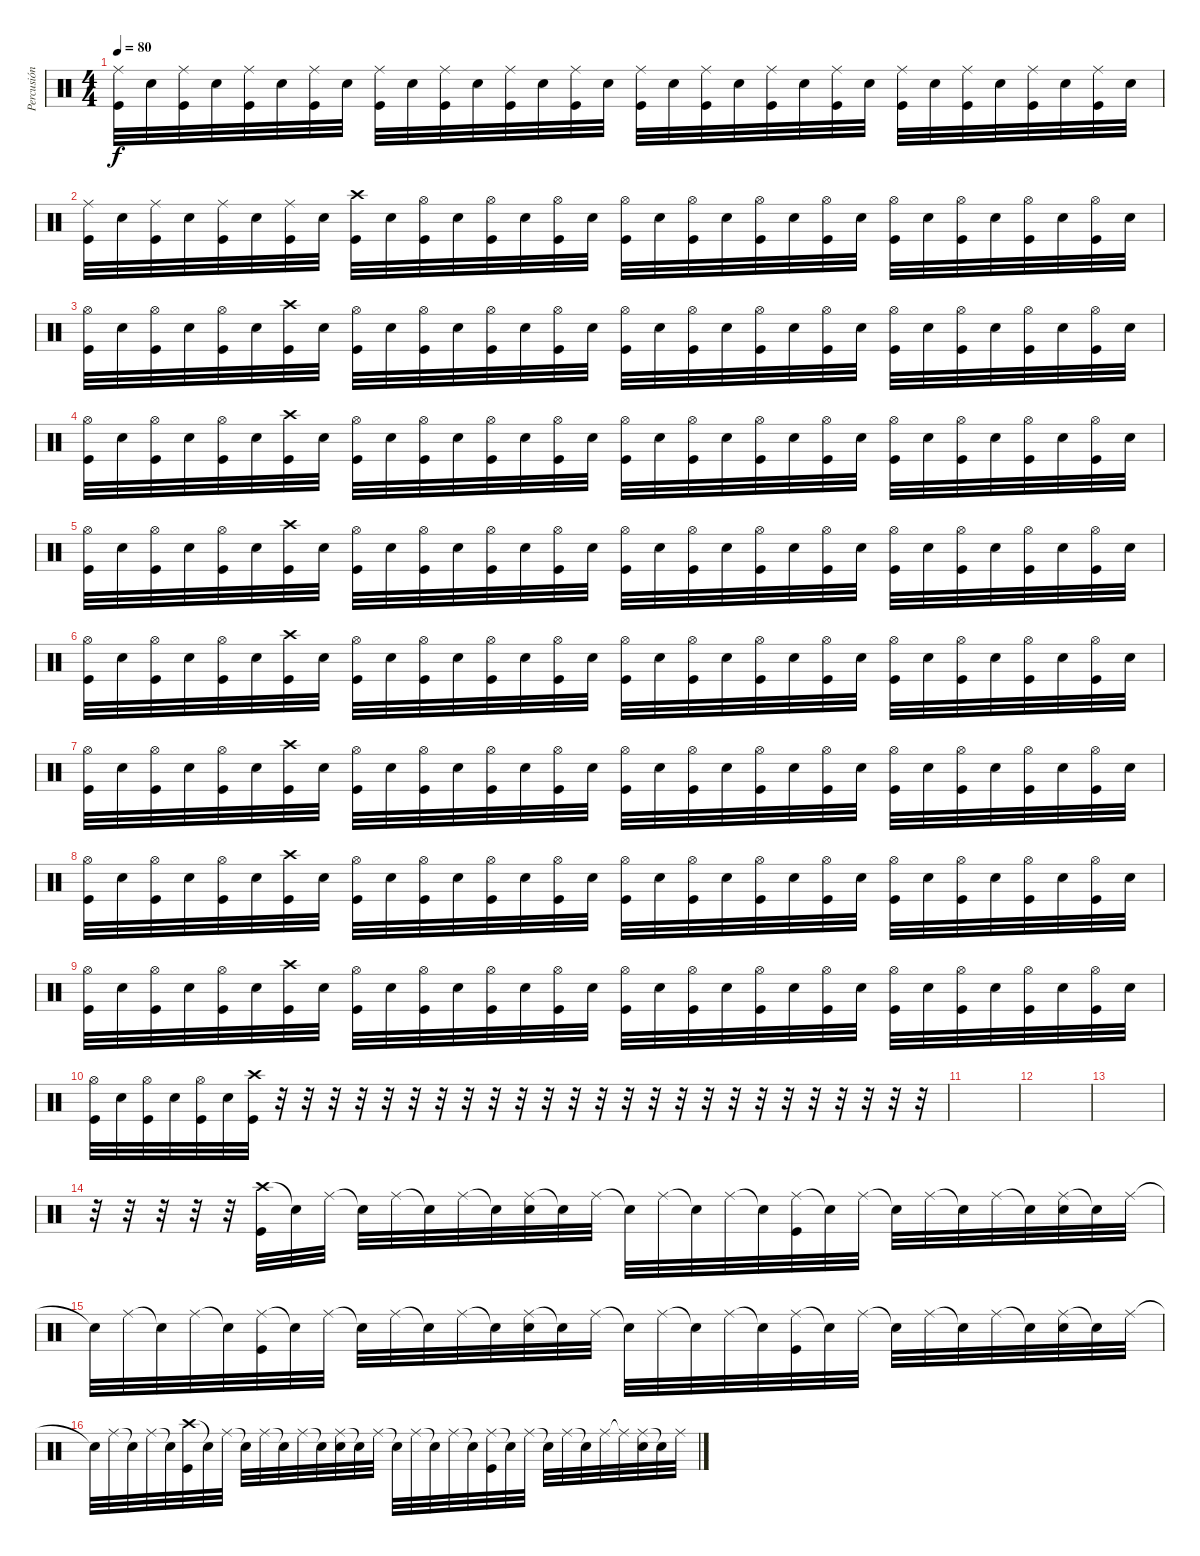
\track ("Percusión" "Percusión") {instrument percussion}
\staff {score}
\articulation defaults
\ts (4 4)
\tempo 80
\clef neutral
\ks c
("Ride (middle)" "Kick (hit)").32{dy f} "Electric Snare (hit)".32 ("Ride (middle)" "Kick (hit)").32 "Electric Snare (hit)".32 ("Ride (middle)" "Kick (hit)").32 "Electric Snare (hit)".32 ("Ride (middle)" "Kick (hit)").32 "Electric Snare (hit)".32 ("Ride (middle)" "Kick (hit)").32 "Electric Snare (hit)".32 ("Ride (middle)" "Kick (hit)").32 "Electric Snare (hit)".32 ("Ride (middle)" "Kick (hit)").32 "Electric Snare (hit)".32 ("Ride (middle)" "Kick (hit)").32 "Electric Snare (hit)".32 ("Ride (middle)" "Kick (hit)").32 "Electric Snare (hit)".32 ("Ride (middle)" "Kick (hit)").32 "Electric Snare (hit)".32 ("Ride (middle)" "Kick (hit)").32 "Electric Snare (hit)".32 ("Ride (middle)" "Kick (hit)").32 "Electric Snare (hit)".32 ("Ride (middle)" "Kick (hit)").32 "Electric Snare (hit)".32 ("Ride (middle)" "Kick (hit)").32 "Electric Snare (hit)".32 ("Ride (middle)" "Kick (hit)").32 "Electric Snare (hit)".32 ("Ride (middle)" "Kick (hit)").32 "Electric Snare (hit)".32 |
("Ride (middle)" "Kick (hit)").32 "Electric Snare (hit)".32 ("Ride (middle)" "Kick (hit)").32 "Electric Snare (hit)".32 ("Ride (middle)" "Kick (hit)").32 "Electric Snare (hit)".32 ("Ride (middle)" "Kick (hit)").32 "Electric Snare (hit)".32 ("Crash high (hit)" "Kick (hit)").32 "Electric Snare (hit)".32 ("Hi-Hat (open)" "Kick (hit)").32 "Electric Snare (hit)".32 ("Hi-Hat (open)" "Kick (hit)").32 "Electric Snare (hit)".32 ("Hi-Hat (open)" "Kick (hit)").32 "Electric Snare (hit)".32 ("Hi-Hat (open)" "Kick (hit)").32 "Electric Snare (hit)".32 ("Hi-Hat (open)" "Kick (hit)").32 "Electric Snare (hit)".32 ("Hi-Hat (open)" "Kick (hit)").32 "Electric Snare (hit)".32 ("Hi-Hat (open)" "Kick (hit)").32 "Electric Snare (hit)".32 ("Hi-Hat (open)" "Kick (hit)").32 "Electric Snare (hit)".32 ("Hi-Hat (open)" "Kick (hit)").32 "Electric Snare (hit)".32 ("Hi-Hat (open)" "Kick (hit)").32 "Electric Snare (hit)".32 ("Hi-Hat (open)" "Kick (hit)").32 "Electric Snare (hit)".32 |
("Hi-Hat (open)" "Kick (hit)").32 "Electric Snare (hit)".32 ("Hi-Hat (open)" "Kick (hit)").32 "Electric Snare (hit)".32 ("Hi-Hat (open)" "Kick (hit)").32 "Electric Snare (hit)".32 ("Crash high (hit)" "Kick (hit)").32 "Electric Snare (hit)".32 ("Hi-Hat (open)" "Kick (hit)").32 "Electric Snare (hit)".32 ("Hi-Hat (open)" "Kick (hit)").32 "Electric Snare (hit)".32 ("Hi-Hat (open)" "Kick (hit)").32 "Electric Snare (hit)".32 ("Hi-Hat (open)" "Kick (hit)").32 "Electric Snare (hit)".32 ("Hi-Hat (open)" "Kick (hit)").32 "Electric Snare (hit)".32 ("Hi-Hat (open)" "Kick (hit)").32 "Electric Snare (hit)".32 ("Hi-Hat (open)" "Kick (hit)").32 "Electric Snare (hit)".32 ("Hi-Hat (open)" "Kick (hit)").32 "Electric Snare (hit)".32 ("Hi-Hat (open)" "Kick (hit)").32 "Electric Snare (hit)".32 ("Hi-Hat (open)" "Kick (hit)").32 "Electric Snare (hit)".32 ("Hi-Hat (open)" "Kick (hit)").32 "Electric Snare (hit)".32 ("Hi-Hat (open)" "Kick (hit)").32 "Electric Snare (hit)".32 |
("Hi-Hat (open)" "Kick (hit)").32 "Electric Snare (hit)".32 ("Hi-Hat (open)" "Kick (hit)").32 "Electric Snare (hit)".32 ("Hi-Hat (open)" "Kick (hit)").32 "Electric Snare (hit)".32 ("Crash high (hit)" "Kick (hit)").32 "Electric Snare (hit)".32 ("Hi-Hat (open)" "Kick (hit)").32 "Electric Snare (hit)".32 ("Hi-Hat (open)" "Kick (hit)").32 "Electric Snare (hit)".32 ("Hi-Hat (open)" "Kick (hit)").32 "Electric Snare (hit)".32 ("Hi-Hat (open)" "Kick (hit)").32 "Electric Snare (hit)".32 ("Hi-Hat (open)" "Kick (hit)").32 "Electric Snare (hit)".32 ("Hi-Hat (open)" "Kick (hit)").32 "Electric Snare (hit)".32 ("Hi-Hat (open)" "Kick (hit)").32 "Electric Snare (hit)".32 ("Hi-Hat (open)" "Kick (hit)").32 "Electric Snare (hit)".32 ("Hi-Hat (open)" "Kick (hit)").32 "Electric Snare (hit)".32 ("Hi-Hat (open)" "Kick (hit)").32 "Electric Snare (hit)".32 ("Hi-Hat (open)" "Kick (hit)").32 "Electric Snare (hit)".32 ("Hi-Hat (open)" "Kick (hit)").32 "Electric Snare (hit)".32 |
("Hi-Hat (open)" "Kick (hit)").32 "Electric Snare (hit)".32 ("Hi-Hat (open)" "Kick (hit)").32 "Electric Snare (hit)".32 ("Hi-Hat (open)" "Kick (hit)").32 "Electric Snare (hit)".32 ("Crash high (hit)" "Kick (hit)").32 "Electric Snare (hit)".32 ("Hi-Hat (open)" "Kick (hit)").32 "Electric Snare (hit)".32 ("Hi-Hat (open)" "Kick (hit)").32 "Electric Snare (hit)".32 ("Hi-Hat (open)" "Kick (hit)").32 "Electric Snare (hit)".32 ("Hi-Hat (open)" "Kick (hit)").32 "Electric Snare (hit)".32 ("Hi-Hat (open)" "Kick (hit)").32 "Electric Snare (hit)".32 ("Hi-Hat (open)" "Kick (hit)").32 "Electric Snare (hit)".32 ("Hi-Hat (open)" "Kick (hit)").32 "Electric Snare (hit)".32 ("Hi-Hat (open)" "Kick (hit)").32 "Electric Snare (hit)".32 ("Hi-Hat (open)" "Kick (hit)").32 "Electric Snare (hit)".32 ("Hi-Hat (open)" "Kick (hit)").32 "Electric Snare (hit)".32 ("Hi-Hat (open)" "Kick (hit)").32 "Electric Snare (hit)".32 ("Hi-Hat (open)" "Kick (hit)").32 "Electric Snare (hit)".32 |
("Hi-Hat (open)" "Kick (hit)").32 "Electric Snare (hit)".32 ("Hi-Hat (open)" "Kick (hit)").32 "Electric Snare (hit)".32 ("Hi-Hat (open)" "Kick (hit)").32 "Electric Snare (hit)".32 ("Crash high (hit)" "Kick (hit)").32 "Electric Snare (hit)".32 ("Hi-Hat (open)" "Kick (hit)").32 "Electric Snare (hit)".32 ("Hi-Hat (open)" "Kick (hit)").32 "Electric Snare (hit)".32 ("Hi-Hat (open)" "Kick (hit)").32 "Electric Snare (hit)".32 ("Hi-Hat (open)" "Kick (hit)").32 "Electric Snare (hit)".32 ("Hi-Hat (open)" "Kick (hit)").32 "Electric Snare (hit)".32 ("Hi-Hat (open)" "Kick (hit)").32 "Electric Snare (hit)".32 ("Hi-Hat (open)" "Kick (hit)").32 "Electric Snare (hit)".32 ("Hi-Hat (open)" "Kick (hit)").32 "Electric Snare (hit)".32 ("Hi-Hat (open)" "Kick (hit)").32 "Electric Snare (hit)".32 ("Hi-Hat (open)" "Kick (hit)").32 "Electric Snare (hit)".32 ("Hi-Hat (open)" "Kick (hit)").32 "Electric Snare (hit)".32 ("Hi-Hat (open)" "Kick (hit)").32 "Electric Snare (hit)".32 |
("Hi-Hat (open)" "Kick (hit)").32 "Electric Snare (hit)".32 ("Hi-Hat (open)" "Kick (hit)").32 "Electric Snare (hit)".32 ("Hi-Hat (open)" "Kick (hit)").32 "Electric Snare (hit)".32 ("Crash high (hit)" "Kick (hit)").32 "Electric Snare (hit)".32 ("Hi-Hat (open)" "Kick (hit)").32 "Electric Snare (hit)".32 ("Hi-Hat (open)" "Kick (hit)").32 "Electric Snare (hit)".32 ("Hi-Hat (open)" "Kick (hit)").32 "Electric Snare (hit)".32 ("Hi-Hat (open)" "Kick (hit)").32 "Electric Snare (hit)".32 ("Hi-Hat (open)" "Kick (hit)").32 "Electric Snare (hit)".32 ("Hi-Hat (open)" "Kick (hit)").32 "Electric Snare (hit)".32 ("Hi-Hat (open)" "Kick (hit)").32 "Electric Snare (hit)".32 ("Hi-Hat (open)" "Kick (hit)").32 "Electric Snare (hit)".32 ("Hi-Hat (open)" "Kick (hit)").32 "Electric Snare (hit)".32 ("Hi-Hat (open)" "Kick (hit)").32 "Electric Snare (hit)".32 ("Hi-Hat (open)" "Kick (hit)").32 "Electric Snare (hit)".32 ("Hi-Hat (open)" "Kick (hit)").32 "Electric Snare (hit)".32 |
("Hi-Hat (open)" "Kick (hit)").32 "Electric Snare (hit)".32 ("Hi-Hat (open)" "Kick (hit)").32 "Electric Snare (hit)".32 ("Hi-Hat (open)" "Kick (hit)").32 "Electric Snare (hit)".32 ("Crash high (hit)" "Kick (hit)").32 "Electric Snare (hit)".32 ("Hi-Hat (open)" "Kick (hit)").32 "Electric Snare (hit)".32 ("Hi-Hat (open)" "Kick (hit)").32 "Electric Snare (hit)".32 ("Hi-Hat (open)" "Kick (hit)").32 "Electric Snare (hit)".32 ("Hi-Hat (open)" "Kick (hit)").32 "Electric Snare (hit)".32 ("Hi-Hat (open)" "Kick (hit)").32 "Electric Snare (hit)".32 ("Hi-Hat (open)" "Kick (hit)").32 "Electric Snare (hit)".32 ("Hi-Hat (open)" "Kick (hit)").32 "Electric Snare (hit)".32 ("Hi-Hat (open)" "Kick (hit)").32 "Electric Snare (hit)".32 ("Hi-Hat (open)" "Kick (hit)").32 "Electric Snare (hit)".32 ("Hi-Hat (open)" "Kick (hit)").32 "Electric Snare (hit)".32 ("Hi-Hat (open)" "Kick (hit)").32 "Electric Snare (hit)".32 ("Hi-Hat (open)" "Kick (hit)").32 "Electric Snare (hit)".32 |
("Hi-Hat (open)" "Kick (hit)").32 "Electric Snare (hit)".32 ("Hi-Hat (open)" "Kick (hit)").32 "Electric Snare (hit)".32 ("Hi-Hat (open)" "Kick (hit)").32 "Electric Snare (hit)".32 ("Crash high (hit)" "Kick (hit)").32 "Electric Snare (hit)".32 ("Hi-Hat (open)" "Kick (hit)").32 "Electric Snare (hit)".32 ("Hi-Hat (open)" "Kick (hit)").32 "Electric Snare (hit)".32 ("Hi-Hat (open)" "Kick (hit)").32 "Electric Snare (hit)".32 ("Hi-Hat (open)" "Kick (hit)").32 "Electric Snare (hit)".32 ("Hi-Hat (open)" "Kick (hit)").32 "Electric Snare (hit)".32 ("Hi-Hat (open)" "Kick (hit)").32 "Electric Snare (hit)".32 ("Hi-Hat (open)" "Kick (hit)").32 "Electric Snare (hit)".32 ("Hi-Hat (open)" "Kick (hit)").32 "Electric Snare (hit)".32 ("Hi-Hat (open)" "Kick (hit)").32 "Electric Snare (hit)".32 ("Hi-Hat (open)" "Kick (hit)").32 "Electric Snare (hit)".32 ("Hi-Hat (open)" "Kick (hit)").32 "Electric Snare (hit)".32 ("Hi-Hat (open)" "Kick (hit)").32 "Electric Snare (hit)".32 |
("Hi-Hat (open)" "Kick (hit)").32 "Electric Snare (hit)".32 ("Hi-Hat (open)" "Kick (hit)").32 "Electric Snare (hit)".32 ("Hi-Hat (open)" "Kick (hit)").32 "Electric Snare (hit)".32 ("Crash high (hit)" "Kick (hit)").32 r.32 r.32 r.32 r.32 r.32 r.32 r.32 r.32 r.32 r.32 r.32 r.32 r.32 r.32 r.32 r.32 r.32 r.32 r.32 r.32 r.32 r.32 r.32 r.32 r.32 |
|
|
|
r.32 r.32 r.32 r.32 r.32 ("Crash high (hit)" "Kick (hit)").32 "Snare (hit)"{t}.32 "Ride (middle)".32 "Snare (hit)"{t}.32 "Ride (middle)".32 "Snare (hit)"{t}.32 "Ride (middle)".32 "Snare (hit)"{t}.32 ("Ride (middle)" "Electric Snare (hit)").32 "Snare (hit)"{t}.32 "Ride (middle)".32 "Snare (hit)"{t}.32 "Ride (middle)".32 "Snare (hit)"{t}.32 "Ride (middle)".32 "Snare (hit)"{t}.32 ("Ride (middle)" "Kick (hit)").32 "Snare (hit)"{t}.32 "Ride (middle)".32 "Snare (hit)"{t}.32 "Ride (middle)".32 "Snare (hit)"{t}.32 "Ride (middle)".32 "Snare (hit)"{t}.32 ("Ride (middle)" "Electric Snare (hit)").32 "Snare (hit)"{t}.32 "Ride (middle)".32 |
"Snare (hit)"{t}.32 "Ride (middle)".32 "Snare (hit)"{t}.32 "Ride (middle)".32 "Snare (hit)"{t}.32 ("Ride (middle)" "Kick (hit)").32 "Snare (hit)"{t}.32 "Ride (middle)".32 "Snare (hit)"{t}.32 "Ride (middle)".32 "Snare (hit)"{t}.32 "Ride (middle)".32 "Snare (hit)"{t}.32 ("Ride (middle)" "Electric Snare (hit)").32 "Snare (hit)"{t}.32 "Ride (middle)".32 "Snare (hit)"{t}.32 "Ride (middle)".32 "Snare (hit)"{t}.32 "Ride (middle)".32 "Snare (hit)"{t}.32 ("Ride (middle)" "Kick (hit)").32 "Snare (hit)"{t}.32 "Ride (middle)".32 "Snare (hit)"{t}.32 "Ride (middle)".32 "Snare (hit)"{t}.32 "Ride (middle)".32 "Snare (hit)"{t}.32 ("Ride (middle)" "Electric Snare (hit)").32 "Snare (hit)"{t}.32 "Ride (middle)".32 |
"Snare (hit)"{t}.32 "Ride (middle)".32 "Snare (hit)"{t}.32 "Ride (middle)".32 "Snare (hit)"{t}.32 ("Crash high (hit)" "Kick (hit)").32 "Snare (hit)"{t}.32 "Ride (middle)".32 "Snare (hit)"{t}.32 "Ride (middle)".32 "Snare (hit)"{t}.32 "Ride (middle)".32 "Snare (hit)"{t}.32 ("Ride (middle)" "Electric Snare (hit)").32 "Snare (hit)"{t}.32 "Ride (middle)".32 "Snare (hit)"{t}.32 "Ride (middle)".32 "Snare (hit)"{t}.32 "Ride (middle)".32 "Snare (hit)"{t}.32 ("Ride (middle)" "Kick (hit)").32 "Snare (hit)"{t}.32 "Ride (middle)".32 "Snare (hit)"{t}.32 "Ride (middle)".32 "Snare (hit)"{t}.32 "Ride (middle)".32 "Ride (middle)"{t}.32 ("Ride (middle)" "Electric Snare (hit)").32 "Snare (hit)"{t}.32 "Ride (middle)".32
